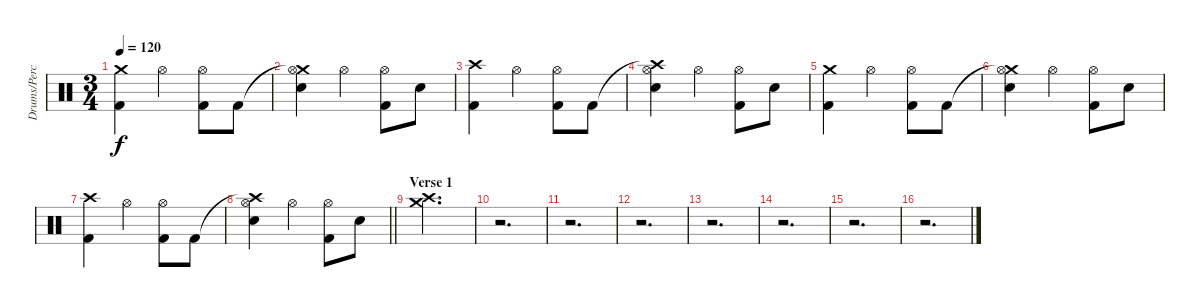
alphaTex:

\track ("Drums/Percussion" "Drums/Perc") {instrument percussion}
\staff {score}
\articulation defaults
\ts (3 4)
\tempo 120
\clef neutral
\ks c
("Crash medium (hit)" "Kick (hit) 2").4{dy f} "Hi-Hat (open)".4 ("Hi-Hat (open)" "Kick (hit) 2").8 "Kick (hit) 2".8 |
("Crash medium (hit)"{t} "Hi-Hat (open)" "Snare (hit) 2").4 "Hi-Hat (open)".4 ("Hi-Hat (open)" "Kick (hit) 2").8 "Snare (hit) 2".8 |
("Crash high (hit)" "Kick (hit) 2").4 "Hi-Hat (open)".4 ("Hi-Hat (open)" "Kick (hit) 2").8 "Kick (hit) 2".8 |
("Crash high (hit)"{t} "Hi-Hat (open)" "Snare (hit) 2").4 "Hi-Hat (open)".4 ("Hi-Hat (open)" "Kick (hit) 2").8 "Snare (hit) 2".8 |
("Crash medium (hit)" "Kick (hit) 2").4 "Hi-Hat (open)".4 ("Hi-Hat (open)" "Kick (hit) 2").8 "Kick (hit) 2".8 |
("Crash medium (hit)"{t} "Hi-Hat (open)" "Snare (hit) 2").4 "Hi-Hat (open)".4 ("Hi-Hat (open)" "Kick (hit) 2").8 "Snare (hit) 2".8 |
("Crash high (hit)" "Kick (hit) 2").4 "Hi-Hat (open)".4 ("Hi-Hat (open)" "Kick (hit) 2").8 "Kick (hit) 2".8 |
\barLineRight lightlight
("Crash high (hit)"{t} "Hi-Hat (open)" "Snare (hit) 2").4 "Hi-Hat (open)".4 ("Hi-Hat (open)" "Kick (hit) 2").8 "Snare (hit) 2".8 |
\section ("" "Verse 1")
("Crash medium (hit)" "Crash high (hit)").2{d} |
r.2{d} |
r.2{d} |
r.2{d} |
r.2{d} |
r.2{d} |
r.2{d} |
r.2{d}
